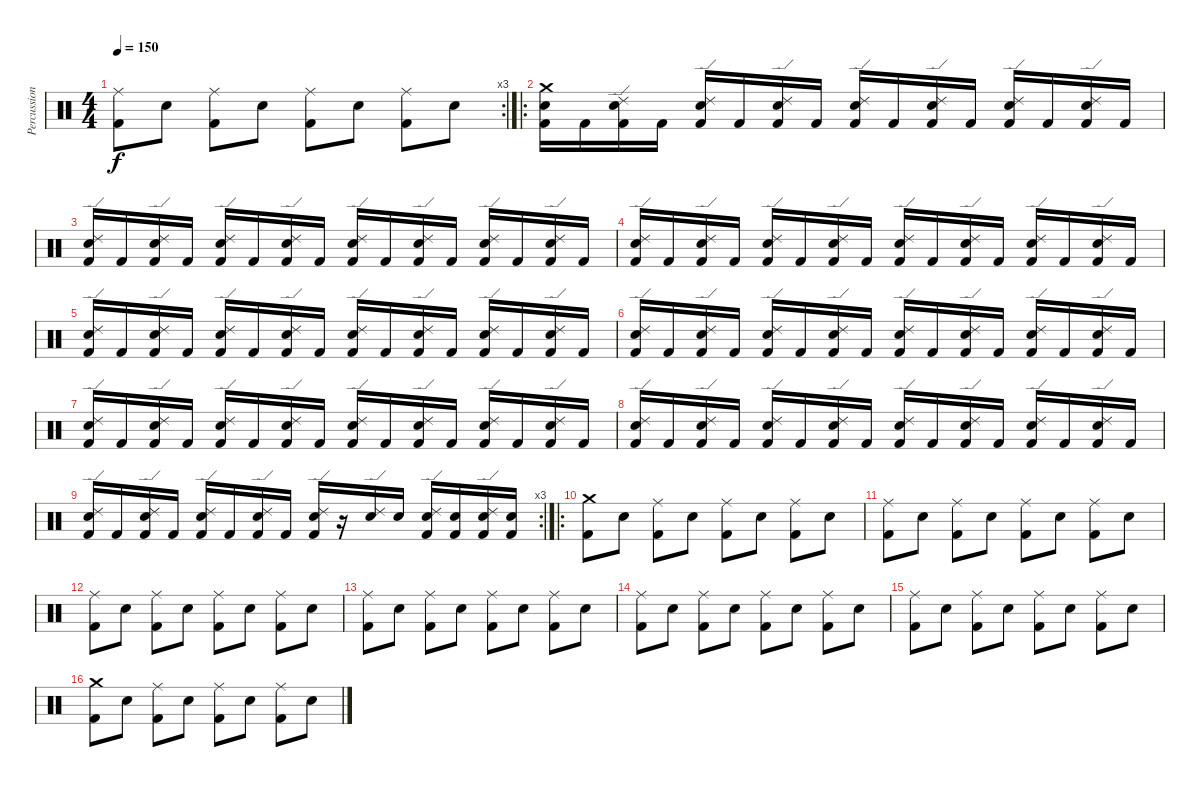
\track ("Percussions" "Percussion") {instrument percussion}
\staff {score}
\articulation defaults
\rc 3
\ts (4 4)
\tempo 150
\clef neutral
\ks c
("Ride (middle)" "Kick (hit) 2").8{dy f} "Snare (hit) 2".8 ("Ride (middle)" "Kick (hit) 2").8 "Snare (hit) 2".8 ("Ride (middle)" "Kick (hit) 2").8 "Snare (hit) 2".8 ("Ride (middle)" "Kick (hit) 2").8 "Snare (hit) 2".8 |
\ro
("Crash medium (hit)" "Snare (hit) 2" "Kick (hit) 2").16 "Kick (hit) 2".16 ("Ride (edge) 2" "Snare (hit) 2" "Kick (hit) 2").16 "Kick (hit) 2".16 ("Ride (edge) 2" "Snare (hit) 2" "Kick (hit) 2").16 "Kick (hit) 2".16 ("Ride (edge) 2" "Snare (hit) 2" "Kick (hit) 2").16 "Kick (hit) 2".16 ("Ride (edge) 2" "Snare (hit) 2" "Kick (hit) 2").16 "Kick (hit) 2".16 ("Ride (edge) 2" "Snare (hit) 2" "Kick (hit) 2").16 "Kick (hit) 2".16 ("Ride (edge) 2" "Snare (hit) 2" "Kick (hit) 2").16 "Kick (hit) 2".16 ("Ride (edge) 2" "Snare (hit) 2" "Kick (hit) 2").16 "Kick (hit) 2".16 |
("Ride (edge) 2" "Snare (hit) 2" "Kick (hit) 2").16 "Kick (hit) 2".16 ("Ride (edge) 2" "Snare (hit) 2" "Kick (hit) 2").16 "Kick (hit) 2".16 ("Ride (edge) 2" "Snare (hit) 2" "Kick (hit) 2").16 "Kick (hit) 2".16 ("Ride (edge) 2" "Snare (hit) 2" "Kick (hit) 2").16 "Kick (hit) 2".16 ("Ride (edge) 2" "Snare (hit) 2" "Kick (hit) 2").16 "Kick (hit) 2".16 ("Ride (edge) 2" "Snare (hit) 2" "Kick (hit) 2").16 "Kick (hit) 2".16 ("Ride (edge) 2" "Snare (hit) 2" "Kick (hit) 2").16 "Kick (hit) 2".16 ("Ride (edge) 2" "Snare (hit) 2" "Kick (hit) 2").16 "Kick (hit) 2".16 |
("Ride (edge) 2" "Snare (hit) 2" "Kick (hit) 2").16 "Kick (hit) 2".16 ("Ride (edge) 2" "Snare (hit) 2" "Kick (hit) 2").16 "Kick (hit) 2".16 ("Ride (edge) 2" "Snare (hit) 2" "Kick (hit) 2").16 "Kick (hit) 2".16 ("Ride (edge) 2" "Snare (hit) 2" "Kick (hit) 2").16 "Kick (hit) 2".16 ("Ride (edge) 2" "Snare (hit) 2" "Kick (hit) 2").16 "Kick (hit) 2".16 ("Ride (edge) 2" "Snare (hit) 2" "Kick (hit) 2").16 "Kick (hit) 2".16 ("Ride (edge) 2" "Snare (hit) 2" "Kick (hit) 2").16 "Kick (hit) 2".16 ("Ride (edge) 2" "Snare (hit) 2" "Kick (hit) 2").16 "Kick (hit) 2".16 |
("Ride (edge) 2" "Snare (hit) 2" "Kick (hit) 2").16 "Kick (hit) 2".16 ("Ride (edge) 2" "Snare (hit) 2" "Kick (hit) 2").16 "Kick (hit) 2".16 ("Ride (edge) 2" "Snare (hit) 2" "Kick (hit) 2").16 "Kick (hit) 2".16 ("Ride (edge) 2" "Snare (hit) 2" "Kick (hit) 2").16 "Kick (hit) 2".16 ("Ride (edge) 2" "Snare (hit) 2" "Kick (hit) 2").16 "Kick (hit) 2".16 ("Ride (edge) 2" "Snare (hit) 2" "Kick (hit) 2").16 "Kick (hit) 2".16 ("Ride (edge) 2" "Snare (hit) 2" "Kick (hit) 2").16 "Kick (hit) 2".16 ("Ride (edge) 2" "Snare (hit) 2" "Kick (hit) 2").16 "Kick (hit) 2".16 |
("Ride (edge) 2" "Snare (hit) 2" "Kick (hit) 2").16 "Kick (hit) 2".16 ("Ride (edge) 2" "Snare (hit) 2" "Kick (hit) 2").16 "Kick (hit) 2".16 ("Ride (edge) 2" "Snare (hit) 2" "Kick (hit) 2").16 "Kick (hit) 2".16 ("Ride (edge) 2" "Snare (hit) 2" "Kick (hit) 2").16 "Kick (hit) 2".16 ("Ride (edge) 2" "Snare (hit) 2" "Kick (hit) 2").16 "Kick (hit) 2".16 ("Ride (edge) 2" "Snare (hit) 2" "Kick (hit) 2").16 "Kick (hit) 2".16 ("Ride (edge) 2" "Snare (hit) 2" "Kick (hit) 2").16 "Kick (hit) 2".16 ("Ride (edge) 2" "Snare (hit) 2" "Kick (hit) 2").16 "Kick (hit) 2".16 |
("Ride (edge) 2" "Snare (hit) 2" "Kick (hit) 2").16 "Kick (hit) 2".16 ("Ride (edge) 2" "Snare (hit) 2" "Kick (hit) 2").16 "Kick (hit) 2".16 ("Ride (edge) 2" "Snare (hit) 2" "Kick (hit) 2").16 "Kick (hit) 2".16 ("Ride (edge) 2" "Snare (hit) 2" "Kick (hit) 2").16 "Kick (hit) 2".16 ("Ride (edge) 2" "Snare (hit) 2" "Kick (hit) 2").16 "Kick (hit) 2".16 ("Ride (edge) 2" "Snare (hit) 2" "Kick (hit) 2").16 "Kick (hit) 2".16 ("Ride (edge) 2" "Snare (hit) 2" "Kick (hit) 2").16 "Kick (hit) 2".16 ("Ride (edge) 2" "Snare (hit) 2" "Kick (hit) 2").16 "Kick (hit) 2".16 |
("Ride (edge) 2" "Snare (hit) 2" "Kick (hit) 2").16 "Kick (hit) 2".16 ("Ride (edge) 2" "Snare (hit) 2" "Kick (hit) 2").16 "Kick (hit) 2".16 ("Ride (edge) 2" "Snare (hit) 2" "Kick (hit) 2").16 "Kick (hit) 2".16 ("Ride (edge) 2" "Snare (hit) 2" "Kick (hit) 2").16 "Kick (hit) 2".16 ("Ride (edge) 2" "Snare (hit) 2" "Kick (hit) 2").16 "Kick (hit) 2".16 ("Ride (edge) 2" "Snare (hit) 2" "Kick (hit) 2").16 "Kick (hit) 2".16 ("Ride (edge) 2" "Snare (hit) 2" "Kick (hit) 2").16 "Kick (hit) 2".16 ("Ride (edge) 2" "Snare (hit) 2" "Kick (hit) 2").16 "Kick (hit) 2".16 |
\rc 3
("Ride (edge) 2" "Snare (hit) 2" "Kick (hit) 2").16 "Kick (hit) 2".16 ("Ride (edge) 2" "Snare (hit) 2" "Kick (hit) 2").16 "Kick (hit) 2".16 ("Ride (edge) 2" "Snare (hit) 2" "Kick (hit) 2").16 "Kick (hit) 2".16 ("Ride (edge) 2" "Snare (hit) 2" "Kick (hit) 2").16 "Kick (hit) 2".16 ("Ride (edge) 2" "Snare (hit) 2" "Kick (hit) 2").16 r.16 ("Ride (edge) 2" "Snare (hit) 2").16 "Snare (hit) 2".16 ("Ride (edge) 2" "Snare (hit) 2" "Kick (hit) 2").16 ("Snare (hit) 2" "Kick (hit) 2").16 ("Ride (edge) 2" "Snare (hit) 2" "Kick (hit) 2").16 ("Snare (hit) 2" "Kick (hit) 2").16 |
\ro
("Crash medium (hit)" "Kick (hit) 2").8 "Snare (hit) 2".8 ("Ride (middle)" "Kick (hit) 2").8 "Snare (hit) 2".8 ("Ride (middle)" "Kick (hit) 2").8 "Snare (hit) 2".8 ("Ride (middle)" "Kick (hit) 2").8 "Snare (hit) 2".8 |
("Ride (middle)" "Kick (hit) 2").8 "Snare (hit) 2".8 ("Ride (middle)" "Kick (hit) 2").8 "Snare (hit) 2".8 ("Ride (middle)" "Kick (hit) 2").8 "Snare (hit) 2".8 ("Ride (middle)" "Kick (hit) 2").8 "Snare (hit) 2".8 |
("Ride (middle)" "Kick (hit) 2").8 "Snare (hit) 2".8 ("Ride (middle)" "Kick (hit) 2").8 "Snare (hit) 2".8 ("Ride (middle)" "Kick (hit) 2").8 "Snare (hit) 2".8 ("Ride (middle)" "Kick (hit) 2").8 "Snare (hit) 2".8 |
("Ride (middle)" "Kick (hit) 2").8 "Snare (hit) 2".8 ("Ride (middle)" "Kick (hit) 2").8 "Snare (hit) 2".8 ("Ride (middle)" "Kick (hit) 2").8 "Snare (hit) 2".8 ("Ride (middle)" "Kick (hit) 2").8 "Snare (hit) 2".8 |
("Ride (middle)" "Kick (hit) 2").8 "Snare (hit) 2".8 ("Ride (middle)" "Kick (hit) 2").8 "Snare (hit) 2".8 ("Ride (middle)" "Kick (hit) 2").8 "Snare (hit) 2".8 ("Ride (middle)" "Kick (hit) 2").8 "Snare (hit) 2".8 |
("Ride (middle)" "Kick (hit) 2").8 "Snare (hit) 2".8 ("Ride (middle)" "Kick (hit) 2").8 "Snare (hit) 2".8 ("Ride (middle)" "Kick (hit) 2").8 "Snare (hit) 2".8 ("Ride (middle)" "Kick (hit) 2").8 "Snare (hit) 2".8 |
("Crash medium (hit)" "Kick (hit) 2").8 "Snare (hit) 2".8 ("Ride (middle)" "Kick (hit) 2").8 "Snare (hit) 2".8 ("Ride (middle)" "Kick (hit) 2").8 "Snare (hit) 2".8 ("Ride (middle)" "Kick (hit) 2").8 "Snare (hit) 2".8
